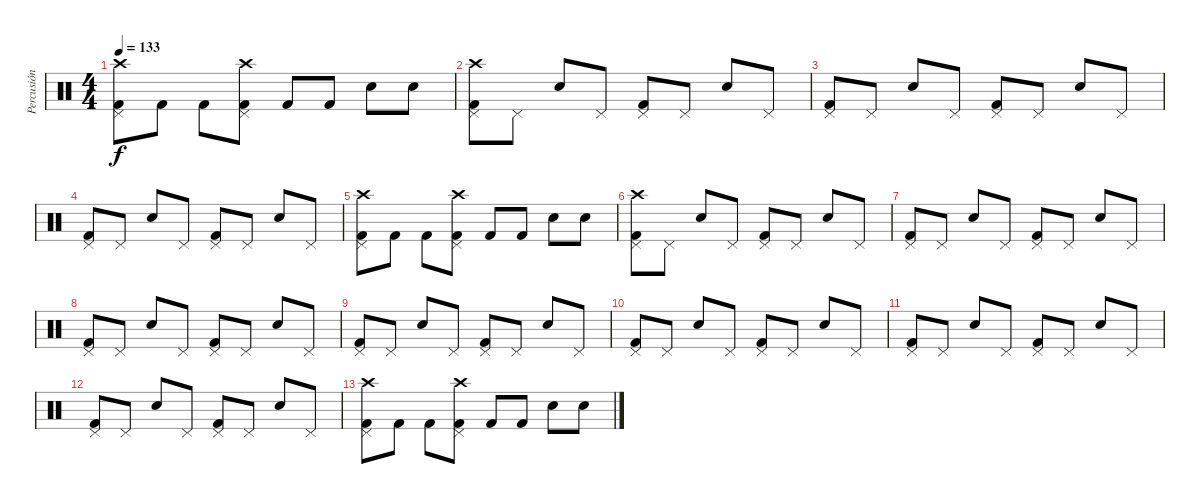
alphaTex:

\track ("Percusión" "Percusión") {instrument percussion}
\staff {score}
\articulation defaults
\ts (4 4)
\tempo 133
\clef neutral
\ks c
("Crash high (hit)" "Pedal Hi-Hat (hit)" "Kick (hit) 2").8{dy f} "Kick (hit) 2".8 "Kick (hit) 2".8 ("Crash high (hit)" "Pedal Hi-Hat (hit)" "Kick (hit) 2").8 "Kick (hit) 2".8 "Kick (hit) 2".8 "Electric Snare (hit)".8 "Electric Snare (hit)".8 |
("Crash high (hit)" "Pedal Hi-Hat (hit)" "Kick (hit) 2").8 "Pedal Hi-Hat (hit)".8 "Electric Snare (hit)".8 "Pedal Hi-Hat (hit)".8 ("Pedal Hi-Hat (hit)" "Kick (hit) 2").8 "Pedal Hi-Hat (hit)".8 "Electric Snare (hit)".8 "Pedal Hi-Hat (hit)".8 |
("Pedal Hi-Hat (hit)" "Kick (hit) 2").8 "Pedal Hi-Hat (hit)".8 "Electric Snare (hit)".8 "Pedal Hi-Hat (hit)".8 ("Pedal Hi-Hat (hit)" "Kick (hit) 2").8 "Pedal Hi-Hat (hit)".8 "Electric Snare (hit)".8 "Pedal Hi-Hat (hit)".8 |
("Pedal Hi-Hat (hit)" "Kick (hit) 2").8 "Pedal Hi-Hat (hit)".8 "Electric Snare (hit)".8 "Pedal Hi-Hat (hit)".8 ("Pedal Hi-Hat (hit)" "Kick (hit) 2").8 "Pedal Hi-Hat (hit)".8 "Electric Snare (hit)".8 "Pedal Hi-Hat (hit)".8 |
("Crash high (hit)" "Pedal Hi-Hat (hit)" "Kick (hit) 2").8 "Kick (hit) 2".8 "Kick (hit) 2".8 ("Crash high (hit)" "Pedal Hi-Hat (hit)" "Kick (hit) 2").8 "Kick (hit) 2".8 "Kick (hit) 2".8 "Electric Snare (hit)".8 "Electric Snare (hit)".8 |
("Crash high (hit)" "Pedal Hi-Hat (hit)" "Kick (hit) 2").8 "Pedal Hi-Hat (hit)".8 "Electric Snare (hit)".8 "Pedal Hi-Hat (hit)".8 ("Pedal Hi-Hat (hit)" "Kick (hit) 2").8 "Pedal Hi-Hat (hit)".8 "Electric Snare (hit)".8 "Pedal Hi-Hat (hit)".8 |
("Pedal Hi-Hat (hit)" "Kick (hit) 2").8 "Pedal Hi-Hat (hit)".8 "Electric Snare (hit)".8 "Pedal Hi-Hat (hit)".8 ("Pedal Hi-Hat (hit)" "Kick (hit) 2").8 "Pedal Hi-Hat (hit)".8 "Electric Snare (hit)".8 "Pedal Hi-Hat (hit)".8 |
("Pedal Hi-Hat (hit)" "Kick (hit) 2").8 "Pedal Hi-Hat (hit)".8 "Electric Snare (hit)".8 "Pedal Hi-Hat (hit)".8 ("Pedal Hi-Hat (hit)" "Kick (hit) 2").8 "Pedal Hi-Hat (hit)".8 "Electric Snare (hit)".8 "Pedal Hi-Hat (hit)".8 |
("Pedal Hi-Hat (hit)" "Kick (hit) 2").8 "Pedal Hi-Hat (hit)".8 "Electric Snare (hit)".8 "Pedal Hi-Hat (hit)".8 ("Pedal Hi-Hat (hit)" "Kick (hit) 2").8 "Pedal Hi-Hat (hit)".8 "Electric Snare (hit)".8 "Pedal Hi-Hat (hit)".8 |
("Pedal Hi-Hat (hit)" "Kick (hit) 2").8 "Pedal Hi-Hat (hit)".8 "Electric Snare (hit)".8 "Pedal Hi-Hat (hit)".8 ("Pedal Hi-Hat (hit)" "Kick (hit) 2").8 "Pedal Hi-Hat (hit)".8 "Electric Snare (hit)".8 "Pedal Hi-Hat (hit)".8 |
("Pedal Hi-Hat (hit)" "Kick (hit) 2").8 "Pedal Hi-Hat (hit)".8 "Electric Snare (hit)".8 "Pedal Hi-Hat (hit)".8 ("Pedal Hi-Hat (hit)" "Kick (hit) 2").8 "Pedal Hi-Hat (hit)".8 "Electric Snare (hit)".8 "Pedal Hi-Hat (hit)".8 |
("Pedal Hi-Hat (hit)" "Kick (hit) 2").8 "Pedal Hi-Hat (hit)".8 "Electric Snare (hit)".8 "Pedal Hi-Hat (hit)".8 ("Pedal Hi-Hat (hit)" "Kick (hit) 2").8 "Pedal Hi-Hat (hit)".8 "Electric Snare (hit)".8 "Pedal Hi-Hat (hit)".8 |
("Crash high (hit)" "Pedal Hi-Hat (hit)" "Kick (hit) 2").8 "Kick (hit) 2".8 "Kick (hit) 2".8 ("Crash high (hit)" "Pedal Hi-Hat (hit)" "Kick (hit) 2").8 "Kick (hit) 2".8 "Kick (hit) 2".8 "Electric Snare (hit)".8 "Electric Snare (hit)".8
